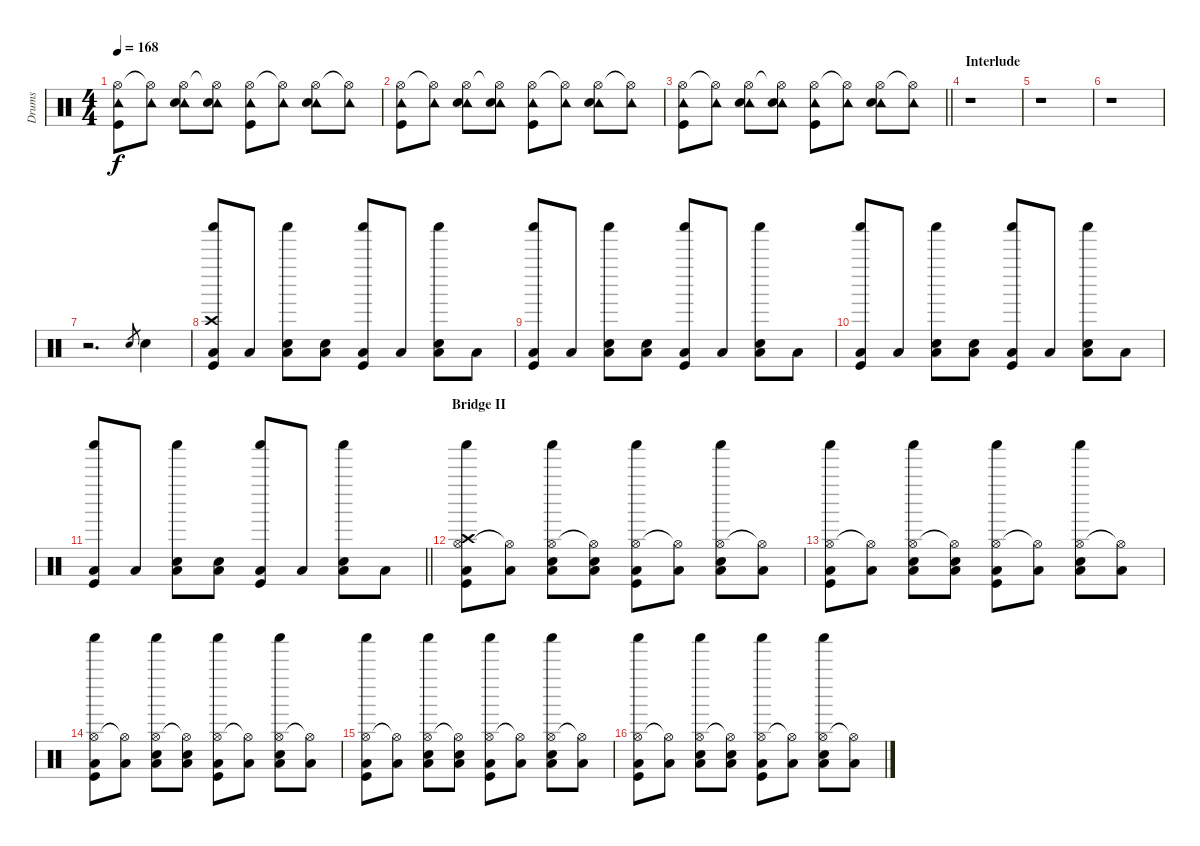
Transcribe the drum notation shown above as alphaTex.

\track ("Drums" "Drums") {instrument percussion}
\staff {score}
\articulation defaults
\ts (4 4)
\tempo 168
\clef neutral
\ks c
("Hi-Hat (open)" "Tambourine (hit)" "Kick (hit)").8{dy f} ("Hi-Hat (open)"{t} "Tambourine (hit)").8 ("Hi-Hat (open)" "Tambourine (hit)" "Snare (hit) 2").8 ("Hi-Hat (open)"{t} "Tambourine (hit)" "Snare (hit) 2").8 ("Hi-Hat (open)" "Tambourine (hit)" "Kick (hit)").8 ("Hi-Hat (open)"{t} "Tambourine (hit)").8 ("Hi-Hat (open)" "Tambourine (hit)" "Snare (hit) 2").8 ("Hi-Hat (open)"{t} "Tambourine (hit)").8 |
("Hi-Hat (open)" "Tambourine (hit)" "Kick (hit)").8 ("Hi-Hat (open)"{t} "Tambourine (hit)").8 ("Hi-Hat (open)" "Tambourine (hit)" "Snare (hit) 2").8 ("Hi-Hat (open)"{t} "Tambourine (hit)" "Snare (hit) 2").8 ("Hi-Hat (open)" "Tambourine (hit)" "Kick (hit)").8 ("Hi-Hat (open)"{t} "Tambourine (hit)").8 ("Hi-Hat (open)" "Tambourine (hit)" "Snare (hit) 2").8 ("Hi-Hat (open)"{t} "Tambourine (hit)").8 |
\barLineRight lightlight
("Hi-Hat (open)" "Tambourine (hit)" "Kick (hit)").8 ("Hi-Hat (open)"{t} "Tambourine (hit)").8 ("Hi-Hat (open)" "Tambourine (hit)" "Snare (hit) 2").8 ("Hi-Hat (open)"{t} "Tambourine (hit)" "Snare (hit) 2").8 ("Hi-Hat (open)" "Tambourine (hit)" "Kick (hit)").8 ("Hi-Hat (open)"{t} "Tambourine (hit)").8 ("Hi-Hat (open)" "Tambourine (hit)" "Snare (hit) 2").8 ("Hi-Hat (open)"{t} "Tambourine (hit)").8 |
\section ("" "Interlude")
r.1 |
r.1 |
r.1 |
r.2{d} "Snare (hit) 2".8{gr} "Snare (hit) 2".4 |
("Crash high (hit)" "Shaker (hit)" "Low Floor Tom (hit)" "Kick (hit)").8 "Low Floor Tom (hit)".8 ("Shaker (hit)" "Snare (hit) 2" "Low Floor Tom (hit)").8 ("Snare (hit) 2" "Low Floor Tom (hit)").8 ("Shaker (hit)" "Low Floor Tom (hit)" "Kick (hit)").8 "Low Floor Tom (hit)".8 ("Shaker (hit)" "Snare (hit) 2" "Low Floor Tom (hit)").8 "Low Floor Tom (hit)".8 |
("Shaker (hit)" "Low Floor Tom (hit)" "Kick (hit)").8 "Low Floor Tom (hit)".8 ("Shaker (hit)" "Snare (hit) 2" "Low Floor Tom (hit)").8 ("Snare (hit) 2" "Low Floor Tom (hit)").8 ("Shaker (hit)" "Low Floor Tom (hit)" "Kick (hit)").8 "Low Floor Tom (hit)".8 ("Shaker (hit)" "Snare (hit) 2" "Low Floor Tom (hit)").8 "Low Floor Tom (hit)".8 |
("Shaker (hit)" "Low Floor Tom (hit)" "Kick (hit)").8 "Low Floor Tom (hit)".8 ("Shaker (hit)" "Snare (hit) 2" "Low Floor Tom (hit)").8 ("Snare (hit) 2" "Low Floor Tom (hit)").8 ("Shaker (hit)" "Low Floor Tom (hit)" "Kick (hit)").8 "Low Floor Tom (hit)".8 ("Shaker (hit)" "Snare (hit) 2" "Low Floor Tom (hit)").8 "Low Floor Tom (hit)".8 |
\barLineRight lightlight
("Shaker (hit)" "Low Floor Tom (hit)" "Kick (hit)").8 "Low Floor Tom (hit)".8 ("Shaker (hit)" "Snare (hit) 2" "Low Floor Tom (hit)").8 ("Snare (hit) 2" "Low Floor Tom (hit)").8 ("Shaker (hit)" "Low Floor Tom (hit)" "Kick (hit)").8 "Low Floor Tom (hit)".8 ("Shaker (hit)" "Snare (hit) 2" "Low Floor Tom (hit)").8 "Low Floor Tom (hit)".8 |
\section ("" "Bridge II")
("Hi-Hat (open)" "Shaker (hit)" "Crash high (hit)" "Low Floor Tom (hit)" "Kick (hit)").8 ("Hi-Hat (open)"{t} "Low Floor Tom (hit)").8 ("Hi-Hat (open)" "Shaker (hit)" "Snare (hit) 2" "Low Floor Tom (hit)").8 ("Hi-Hat (open)"{t} "Snare (hit) 2" "Low Floor Tom (hit)").8 ("Hi-Hat (open)" "Shaker (hit)" "Low Floor Tom (hit)" "Kick (hit)").8 ("Hi-Hat (open)"{t} "Low Floor Tom (hit)").8 ("Hi-Hat (open)" "Shaker (hit)" "Snare (hit) 2" "Low Floor Tom (hit)").8 ("Hi-Hat (open)"{t} "Low Floor Tom (hit)").8 |
("Hi-Hat (open)" "Shaker (hit)" "Low Floor Tom (hit)" "Kick (hit)").8 ("Hi-Hat (open)"{t} "Low Floor Tom (hit)").8 ("Hi-Hat (open)" "Shaker (hit)" "Snare (hit) 2" "Low Floor Tom (hit)").8 ("Hi-Hat (open)"{t} "Snare (hit) 2" "Low Floor Tom (hit)").8 ("Hi-Hat (open)" "Shaker (hit)" "Low Floor Tom (hit)" "Kick (hit)").8 ("Hi-Hat (open)"{t} "Low Floor Tom (hit)").8 ("Hi-Hat (open)" "Shaker (hit)" "Snare (hit) 2" "Low Floor Tom (hit)").8 ("Hi-Hat (open)"{t} "Low Floor Tom (hit)").8 |
("Hi-Hat (open)" "Shaker (hit)" "Low Floor Tom (hit)" "Kick (hit)").8 ("Hi-Hat (open)"{t} "Low Floor Tom (hit)").8 ("Hi-Hat (open)" "Shaker (hit)" "Snare (hit) 2" "Low Floor Tom (hit)").8 ("Hi-Hat (open)"{t} "Snare (hit) 2" "Low Floor Tom (hit)").8 ("Hi-Hat (open)" "Shaker (hit)" "Low Floor Tom (hit)" "Kick (hit)").8 ("Hi-Hat (open)"{t} "Low Floor Tom (hit)").8 ("Hi-Hat (open)" "Shaker (hit)" "Snare (hit) 2" "Low Floor Tom (hit)").8 ("Hi-Hat (open)"{t} "Low Floor Tom (hit)").8 |
("Hi-Hat (open)" "Shaker (hit)" "Low Floor Tom (hit)" "Kick (hit)").8 ("Hi-Hat (open)"{t} "Low Floor Tom (hit)").8 ("Hi-Hat (open)" "Shaker (hit)" "Snare (hit) 2" "Low Floor Tom (hit)").8 ("Hi-Hat (open)"{t} "Snare (hit) 2" "Low Floor Tom (hit)").8 ("Hi-Hat (open)" "Shaker (hit)" "Low Floor Tom (hit)" "Kick (hit)").8 ("Hi-Hat (open)"{t} "Low Floor Tom (hit)").8 ("Hi-Hat (open)" "Shaker (hit)" "Snare (hit) 2" "Low Floor Tom (hit)").8 ("Hi-Hat (open)"{t} "Low Floor Tom (hit)").8 |
("Hi-Hat (open)" "Shaker (hit)" "Low Floor Tom (hit)" "Kick (hit)").8 ("Hi-Hat (open)"{t} "Low Floor Tom (hit)").8 ("Hi-Hat (open)" "Shaker (hit)" "Snare (hit) 2" "Low Floor Tom (hit)").8 ("Hi-Hat (open)"{t} "Snare (hit) 2" "Low Floor Tom (hit)").8 ("Hi-Hat (open)" "Shaker (hit)" "Low Floor Tom (hit)" "Kick (hit)").8 ("Hi-Hat (open)"{t} "Low Floor Tom (hit)").8 ("Hi-Hat (open)" "Shaker (hit)" "Snare (hit) 2" "Low Floor Tom (hit)").8 ("Hi-Hat (open)"{t} "Low Floor Tom (hit)").8
